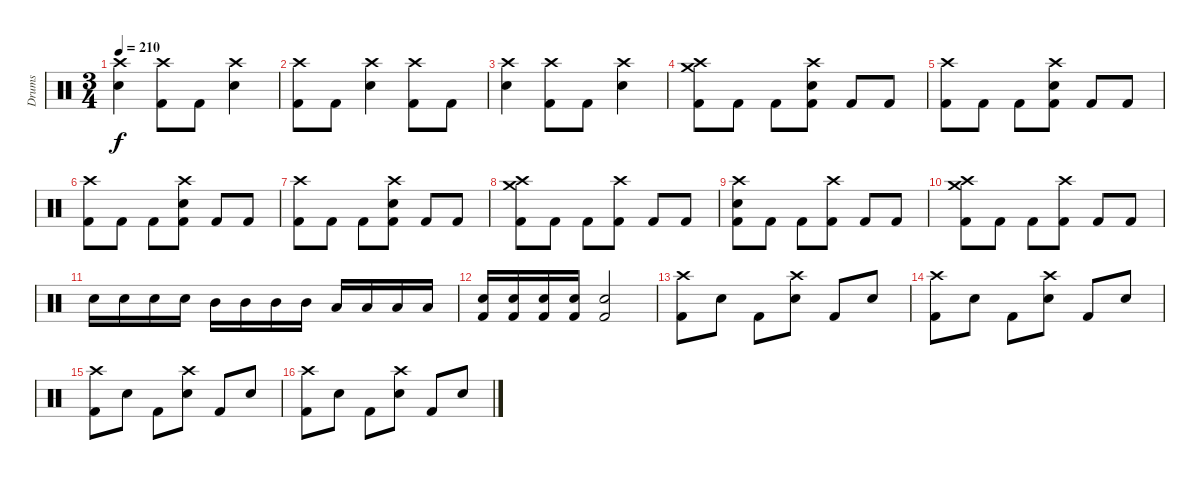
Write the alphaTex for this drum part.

\track ("Drums" "Drums") {instrument percussion}
\staff {score}
\articulation defaults
\ts (3 4)
\tempo 210
\clef neutral
\ks c
("Crash high (hit)" "Electric Snare (hit)").4{dy f} ("Crash high (hit)" "Kick (hit) 2").8 "Kick (hit) 2".8 ("Crash high (hit)" "Electric Snare (hit)").4 |
("Crash high (hit)" "Kick (hit) 2").8 "Kick (hit) 2".8 ("Crash high (hit)" "Electric Snare (hit)").4 ("Crash high (hit)" "Kick (hit) 2").8 "Kick (hit) 2".8 |
("Crash high (hit)" "Electric Snare (hit)").4 ("Crash high (hit)" "Kick (hit) 2").8 "Kick (hit) 2".8 ("Crash high (hit)" "Electric Snare (hit)").4 |
("Crash high (hit)" "Crash medium (hit)" "Kick (hit) 2").8 "Kick (hit) 2".8 "Kick (hit) 2".8 ("Crash high (hit)" "Electric Snare (hit)" "Kick (hit) 2").8 "Kick (hit) 2".8 "Kick (hit) 2".8 |
("Crash high (hit)" "Kick (hit) 2").8 "Kick (hit) 2".8 "Kick (hit) 2".8 ("Crash high (hit)" "Electric Snare (hit)" "Kick (hit) 2").8 "Kick (hit) 2".8 "Kick (hit) 2".8 |
("Crash high (hit)" "Kick (hit) 2").8 "Kick (hit) 2".8 "Kick (hit) 2".8 ("Crash high (hit)" "Electric Snare (hit)" "Kick (hit) 2").8 "Kick (hit) 2".8 "Kick (hit) 2".8 |
("Crash high (hit)" "Kick (hit) 2").8 "Kick (hit) 2".8 "Kick (hit) 2".8 ("Crash high (hit)" "Electric Snare (hit)" "Kick (hit) 2").8 "Kick (hit) 2".8 "Kick (hit) 2".8 |
("Crash high (hit)" "Crash medium (hit)" "Kick (hit) 2").8 "Kick (hit) 2".8 "Kick (hit) 2".8 ("Crash high (hit)" "Kick (hit) 2").8 "Kick (hit) 2".8 "Kick (hit) 2".8 |
("Crash high (hit)" "Electric Snare (hit)" "Kick (hit) 2").8 "Kick (hit) 2".8 "Kick (hit) 2".8 ("Crash high (hit)" "Kick (hit) 2").8 "Kick (hit) 2".8 "Kick (hit) 2".8 |
("Crash high (hit)" "Crash medium (hit)" "Kick (hit) 2").8 "Kick (hit) 2".8 "Kick (hit) 2".8 ("Crash high (hit)" "Kick (hit) 2").8 "Kick (hit) 2".8 "Kick (hit) 2".8 |
"Electric Snare (hit)".16 "Electric Snare (hit)".16 "Electric Snare (hit)".16 "Electric Snare (hit)".16 "Mid Tom (hit)".16 "Mid Tom (hit)".16 "Mid Tom (hit)".16 "Mid Tom (hit)".16 "Low Tom (hit)".16 "Low Tom (hit)".16 "Low Tom (hit)".16 "Low Tom (hit)".16 |
("Electric Snare (hit)" "Kick (hit) 2").16 ("Electric Snare (hit)" "Kick (hit) 2").16 ("Electric Snare (hit)" "Kick (hit) 2").16 ("Electric Snare (hit)" "Kick (hit) 2").16 ("Electric Snare (hit)" "Kick (hit) 2").2 |
("Crash high (hit)" "Kick (hit) 2").8 "Electric Snare (hit)".8 "Kick (hit) 2".8 ("Crash high (hit)" "Electric Snare (hit)").8 "Kick (hit) 2".8 "Electric Snare (hit)".8 |
("Crash high (hit)" "Kick (hit) 2").8 "Electric Snare (hit)".8 "Kick (hit) 2".8 ("Crash high (hit)" "Electric Snare (hit)").8 "Kick (hit) 2".8 "Electric Snare (hit)".8 |
("Crash high (hit)" "Kick (hit) 2").8 "Electric Snare (hit)".8 "Kick (hit) 2".8 ("Crash high (hit)" "Electric Snare (hit)").8 "Kick (hit) 2".8 "Electric Snare (hit)".8 |
("Crash high (hit)" "Kick (hit) 2").8 "Electric Snare (hit)".8 "Kick (hit) 2".8 ("Crash high (hit)" "Electric Snare (hit)").8 "Kick (hit) 2".8 "Electric Snare (hit)".8
